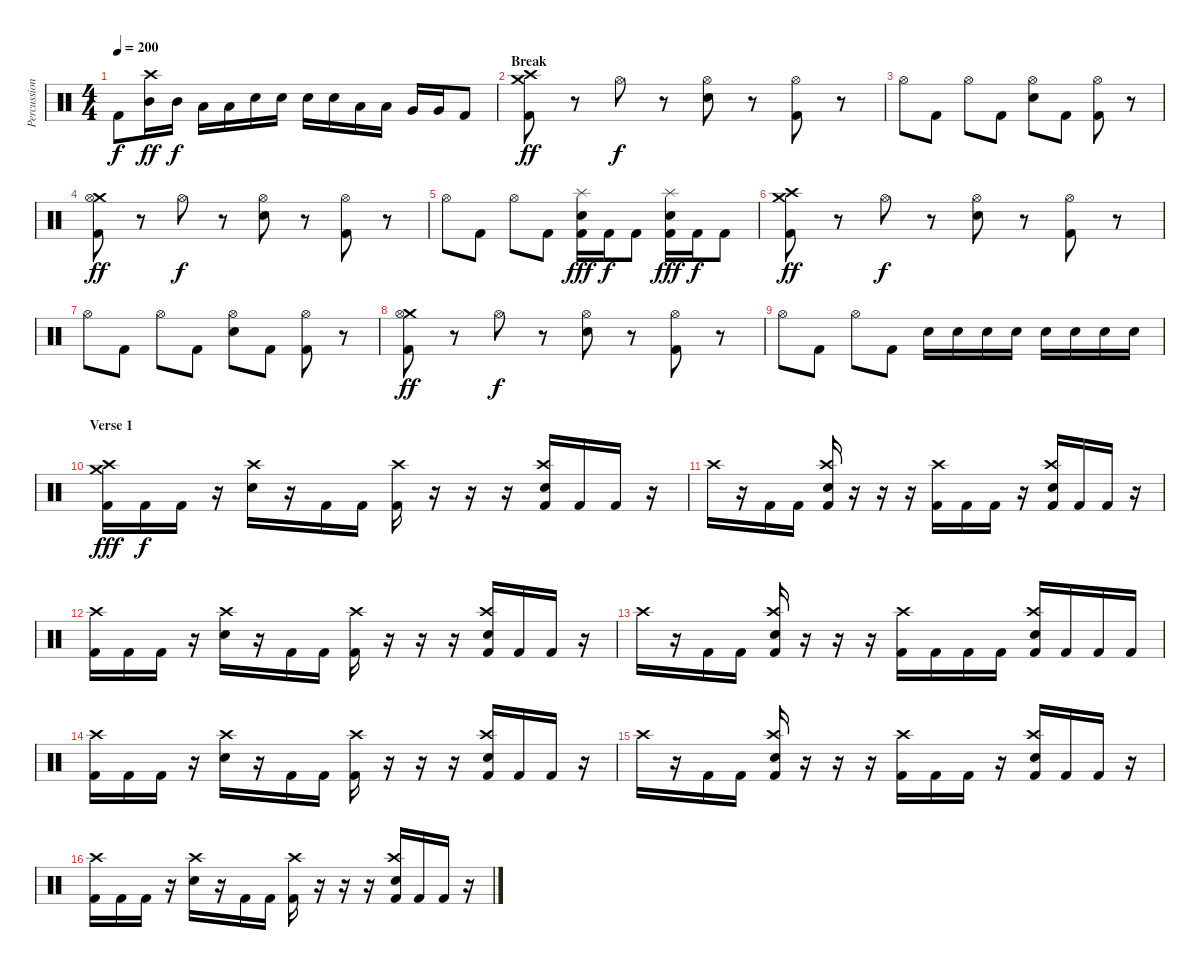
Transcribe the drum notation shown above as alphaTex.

\track ("Percussions" "Percussion") {instrument percussion}
\staff {score}
\articulation defaults
\ts (4 4)
\tempo 200
\clef neutral
\ks c "Kick (hit) 2".8{dy f}
("Crash high (hit)" "Mid Tom (hit)").16{dy ff} "Mid Tom (hit)".16{dy f} "Low Tom (hit)".16 "Low Tom (hit)".16 "Electric Snare (hit)".16 "Electric Snare (hit)".16 "Electric Snare (hit)".16 "Electric Snare (hit)".16 "Low Tom (hit)".16 "Low Tom (hit)".16 "Very Low Tom (hit)".16 "Very Low Tom (hit)".16 "Kick (hit) 2".8 |
\section ("" "Break ")
("Crash high (hit)" "Crash medium (hit)" "Kick (hit) 2").8{dy ff} r.8 "Hi-Hat (open)".8{dy f} r.8 ("Hi-Hat (open)" "Electric Snare (hit)").8 r.8 ("Hi-Hat (open)" "Kick (hit) 2").8 r.8 |
"Hi-Hat (open)".8 "Kick (hit) 2".8 "Hi-Hat (open)".8 "Kick (hit) 2".8 ("Hi-Hat (open)" "Electric Snare (hit)").8 "Kick (hit) 2".8 ("Hi-Hat (open)" "Kick (hit) 2").8 r.8 |
("Crash medium (hit)" "Hi-Hat (open)" "Kick (hit) 2").8{dy ff} r.8 "Hi-Hat (open)".8{dy f} r.8 ("Hi-Hat (open)" "Electric Snare (hit)").8 r.8 ("Hi-Hat (open)" "Kick (hit) 2").8 r.8 |
"Hi-Hat (open)".8 "Kick (hit) 2".8 "Hi-Hat (open)".8 "Kick (hit) 2".8 ("Splash (hit)" "Electric Snare (hit)" "Kick (hit) 2").16{dy fff} "Kick (hit) 2".16{dy f} "Kick (hit) 2".8 ("Splash (hit)" "Electric Snare (hit)" "Kick (hit) 2").16{dy fff} "Kick (hit) 2".16{dy f} "Kick (hit) 2".8 |
("Crash high (hit)" "Crash medium (hit)" "Kick (hit) 2").8{dy ff} r.8 "Hi-Hat (open)".8{dy f} r.8 ("Hi-Hat (open)" "Electric Snare (hit)").8 r.8 ("Hi-Hat (open)" "Kick (hit) 2").8 r.8 |
"Hi-Hat (open)".8 "Kick (hit) 2".8 "Hi-Hat (open)".8 "Kick (hit) 2".8 ("Hi-Hat (open)" "Electric Snare (hit)").8 "Kick (hit) 2".8 ("Hi-Hat (open)" "Kick (hit) 2").8 r.8 |
("Crash medium (hit)" "Hi-Hat (open)" "Kick (hit) 2").8{dy ff} r.8 "Hi-Hat (open)".8{dy f} r.8 ("Hi-Hat (open)" "Electric Snare (hit)").8 r.8 ("Hi-Hat (open)" "Kick (hit) 2").8 r.8 |
"Hi-Hat (open)".8 "Kick (hit) 2".8 "Hi-Hat (open)".8 "Kick (hit) 2".8 "Electric Snare (hit)".16 "Electric Snare (hit)".16 "Electric Snare (hit)".16 "Electric Snare (hit)".16 "Electric Snare (hit)".16 "Electric Snare (hit)".16 "Electric Snare (hit)".16 "Electric Snare (hit)".16 |
\section ("" "Verse 1")
("Crash medium (hit)" "Crash high (hit)" "Kick (hit) 2").16{dy fff} "Kick (hit) 2".16{dy f} "Kick (hit) 2".16 r.16 ("Crash high (hit)" "Electric Snare (hit)").16 r.16 "Kick (hit) 2".16 "Kick (hit) 2".16 ("Crash high (hit)" "Kick (hit) 2").16 r.16 r.16 r.16 ("Crash high (hit)" "Electric Snare (hit)" "Kick (hit) 2").16 "Kick (hit) 2".16 "Kick (hit) 2".16 r.16 |
"Crash high (hit)".16 r.16 "Kick (hit) 2".16 "Kick (hit) 2".16 ("Crash high (hit)" "Electric Snare (hit)" "Kick (hit) 2").16 r.16 r.16 r.16 ("Crash high (hit)" "Kick (hit) 2").16 "Kick (hit) 2".16 "Kick (hit) 2".16 r.16 ("Crash high (hit)" "Electric Snare (hit)" "Kick (hit) 2").16 "Kick (hit) 2".16 "Kick (hit) 2".16 r.16 |
("Crash high (hit)" "Kick (hit) 2").16 "Kick (hit) 2".16 "Kick (hit) 2".16 r.16 ("Crash high (hit)" "Electric Snare (hit)").16 r.16 "Kick (hit) 2".16 "Kick (hit) 2".16 ("Crash high (hit)" "Kick (hit) 2").16 r.16 r.16 r.16 ("Crash high (hit)" "Electric Snare (hit)" "Kick (hit) 2").16 "Kick (hit) 2".16 "Kick (hit) 2".16 r.16 |
"Crash high (hit)".16 r.16 "Kick (hit) 2".16 "Kick (hit) 2".16 ("Crash high (hit)" "Electric Snare (hit)" "Kick (hit) 2").16 r.16 r.16 r.16 ("Crash high (hit)" "Kick (hit) 2").16 "Kick (hit) 2".16 "Kick (hit) 2".16 "Kick (hit) 2".16 ("Crash high (hit)" "Electric Snare (hit)" "Kick (hit) 2").16 "Kick (hit) 2".16 "Kick (hit) 2".16 "Kick (hit) 2".16 |
("Crash high (hit)" "Kick (hit) 2").16 "Kick (hit) 2".16 "Kick (hit) 2".16 r.16 ("Crash high (hit)" "Electric Snare (hit)").16 r.16 "Kick (hit) 2".16 "Kick (hit) 2".16 ("Crash high (hit)" "Kick (hit) 2").16 r.16 r.16 r.16 ("Crash high (hit)" "Electric Snare (hit)" "Kick (hit) 2").16 "Kick (hit) 2".16 "Kick (hit) 2".16 r.16 |
"Crash high (hit)".16 r.16 "Kick (hit) 2".16 "Kick (hit) 2".16 ("Crash high (hit)" "Electric Snare (hit)" "Kick (hit) 2").16 r.16 r.16 r.16 ("Crash high (hit)" "Kick (hit) 2").16 "Kick (hit) 2".16 "Kick (hit) 2".16 r.16 ("Crash high (hit)" "Electric Snare (hit)" "Kick (hit) 2").16 "Kick (hit) 2".16 "Kick (hit) 2".16 r.16 |
("Crash high (hit)" "Kick (hit) 2").16 "Kick (hit) 2".16 "Kick (hit) 2".16 r.16 ("Crash high (hit)" "Electric Snare (hit)").16 r.16 "Kick (hit) 2".16 "Kick (hit) 2".16 ("Crash high (hit)" "Kick (hit) 2").16 r.16 r.16 r.16 ("Crash high (hit)" "Electric Snare (hit)" "Kick (hit) 2").16 "Kick (hit) 2".16 "Kick (hit) 2".16 r.16
